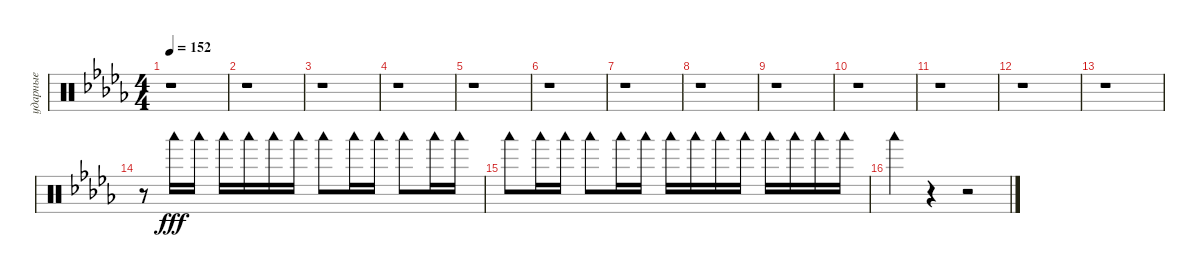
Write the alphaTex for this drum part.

\track ("ударные" "ударные") {instrument percussion}
\staff {score}
\articulation defaults
\ts (4 4)
\tempo 152
\clef neutral
\ks bbminor
r.1{dy f} |
r.1 |
r.1 |
r.1 |
r.1 |
r.1 |
r.1 |
r.1 |
r.1 |
r.1 |
r.1 |
r.1 |
r.1 |
r.8 "Woodblock low (hit)".16{dy fff} "Woodblock low (hit)".16 "Woodblock low (hit)".16 "Woodblock low (hit)".16 "Woodblock low (hit)".16 "Woodblock low (hit)".16 "Woodblock low (hit)".8 "Woodblock low (hit)".16 "Woodblock low (hit)".16 "Woodblock low (hit)".8 "Woodblock low (hit)".16 "Woodblock low (hit)".16 |
"Woodblock low (hit)".8 "Woodblock low (hit)".16 "Woodblock low (hit)".16 "Woodblock low (hit)".8 "Woodblock low (hit)".16 "Woodblock low (hit)".16 "Woodblock low (hit)".16 "Woodblock low (hit)".16 "Woodblock low (hit)".16 "Woodblock low (hit)".16 "Woodblock low (hit)".16 "Woodblock low (hit)".16 "Woodblock low (hit)".16 "Woodblock low (hit)".16 |
"Woodblock low (hit)".4 r.4 r.2
